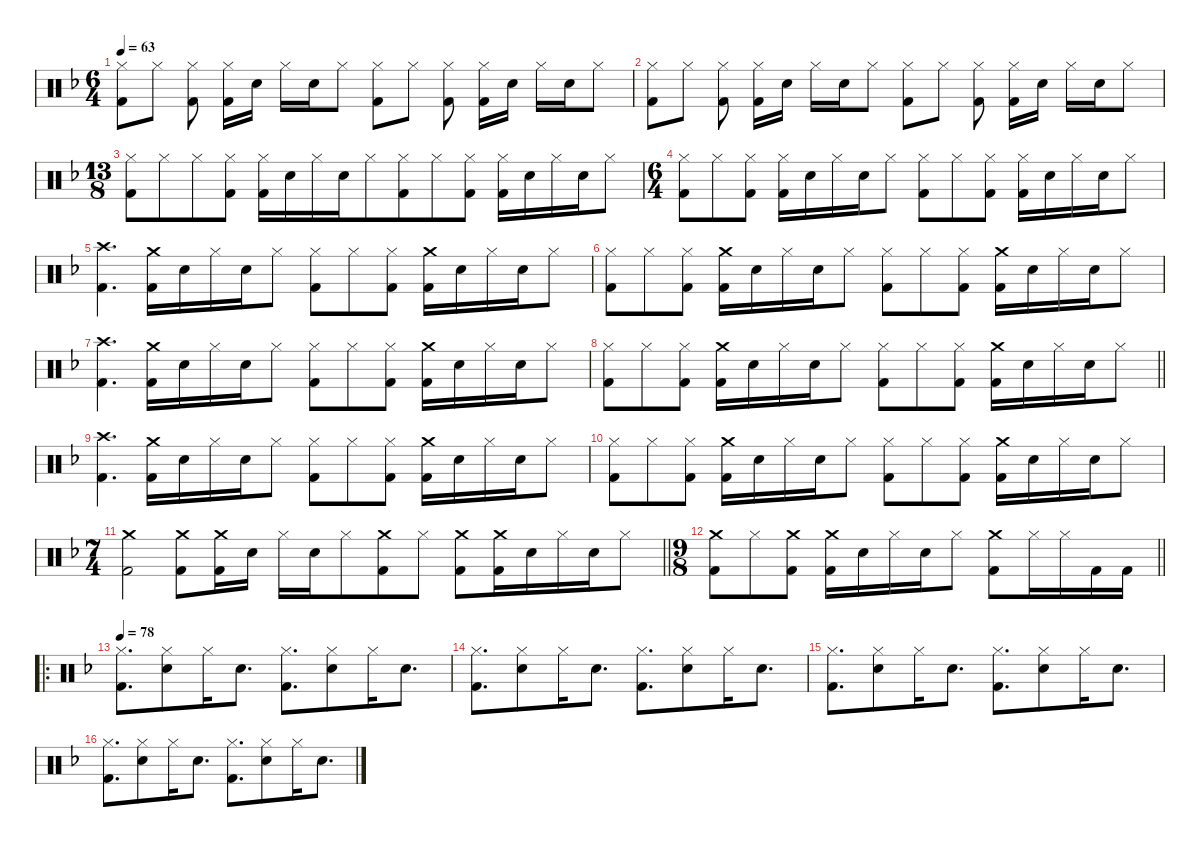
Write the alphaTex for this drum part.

\defaultSystemsLayout 4
\hideDynamics
\bracketExtendMode nobrackets
\singleTrackTrackNamePolicy hidden
\multiTrackTrackNamePolicy hidden
\firstSystemTrackNameMode fullname
\firstSystemTrackNameOrientation horizontal
\otherSystemsTrackNameOrientation horizontal
\track ("Percussion" "drm.") {instrument percussion}
\staff {score}
\articulation defaults
\ts (6 4)
\tempo 63
\clef neutral
\ks f
("Hi-Hat (closed)"{acc forcenatural} "Kick (hit) 2"{acc forcenatural}).8{dy f beam Down} "Hi-Hat (closed)"{acc forcenatural}.8{beam Down} ("Hi-Hat (closed)"{acc forcenatural} "Kick (hit) 2"{acc forcenatural}).8{beam Down beam split} ("Hi-Hat (closed)"{acc forcenatural} "Kick (hit) 2"{acc forcenatural}).16{beam Down} "Snare (hit) 2"{acc forcenatural}.16{beam Down} "Hi-Hat (closed)"{acc forcenatural}.16{beam Down} "Snare (hit) 2"{acc forcenatural}.16{dy mf beam Down} "Hi-Hat (closed)"{acc forcenatural}.8{beam Down} ("Hi-Hat (closed)"{acc forcenatural} "Kick (hit) 2"{acc forcenatural}).8{dy f beam Down} "Hi-Hat (closed)"{acc forcenatural}.8{beam Down} ("Hi-Hat (closed)"{acc forcenatural} "Kick (hit) 2"{acc forcenatural}).8{beam Down beam split} ("Hi-Hat (closed)"{acc forcenatural} "Kick (hit) 2"{acc forcenatural}).16{beam Down} "Snare (hit) 2"{acc forcenatural}.16{beam Down} "Hi-Hat (closed)"{acc forcenatural}.16{beam Down} "Snare (hit) 2"{acc forcenatural}.16{dy mf beam Down} "Hi-Hat (closed)"{acc forcenatural}.8{beam Down} |
("Hi-Hat (closed)"{acc forcenatural} "Kick (hit) 2"{acc forcenatural}).8{dy f beam Down} "Hi-Hat (closed)"{acc forcenatural}.8{beam Down} ("Hi-Hat (closed)"{acc forcenatural} "Kick (hit) 2"{acc forcenatural}).8{beam Down beam split} ("Hi-Hat (closed)"{acc forcenatural} "Kick (hit) 2"{acc forcenatural}).16{beam Down} "Snare (hit) 2"{acc forcenatural}.16{beam Down} "Hi-Hat (closed)"{acc forcenatural}.16{beam Down} "Snare (hit) 2"{acc forcenatural}.16{dy mf beam Down} "Hi-Hat (closed)"{acc forcenatural}.8{beam Down} ("Hi-Hat (closed)"{acc forcenatural} "Kick (hit) 2"{acc forcenatural}).8{dy f beam Down} "Hi-Hat (closed)"{acc forcenatural}.8{beam Down} ("Hi-Hat (closed)"{acc forcenatural} "Kick (hit) 2"{acc forcenatural}).8{beam Down beam split} ("Hi-Hat (closed)"{acc forcenatural} "Kick (hit) 2"{acc forcenatural}).16{beam Down} "Snare (hit) 2"{acc forcenatural}.16{beam Down} "Hi-Hat (closed)"{acc forcenatural}.16{beam Down} "Snare (hit) 2"{acc forcenatural}.16{dy mf beam Down} "Hi-Hat (closed)"{acc forcenatural}.8{beam Down} |
\ts (13 8)
\beaming (8 13)
("Hi-Hat (closed)"{acc forcenatural} "Kick (hit) 2"{acc forcenatural}).8{dy f beam Down beam merge} "Hi-Hat (closed)"{acc forcenatural}.8{beam Down beam merge} "Hi-Hat (closed)"{acc forcenatural}.8{beam Down beam merge} ("Hi-Hat (closed)"{acc forcenatural} "Kick (hit) 2"{acc forcenatural}).8{beam Down beam split} ("Hi-Hat (closed)"{acc forcenatural} "Kick (hit) 2"{acc forcenatural}).16{beam Down} "Snare (hit) 2"{acc forcenatural}.16{beam Down beam merge} "Hi-Hat (closed)"{acc forcenatural}.16{beam Down} "Snare (hit) 2"{acc forcenatural}.16{dy mf beam Down beam merge} "Hi-Hat (closed)"{acc forcenatural}.8{beam Down} ("Hi-Hat (closed)"{acc forcenatural} "Kick (hit) 2"{acc forcenatural}).8{dy f beam Down beam merge} "Hi-Hat (closed)"{acc forcenatural}.8{beam Down beam merge} ("Hi-Hat (closed)"{acc forcenatural} "Kick (hit) 2"{acc forcenatural}).8{beam Down beam split} ("Hi-Hat (closed)"{acc forcenatural} "Kick (hit) 2"{acc forcenatural}).16{beam Down} "Snare (hit) 2"{acc forcenatural}.16{beam Down beam merge} "Hi-Hat (closed)"{acc forcenatural}.16{beam Down} "Snare (hit) 2"{acc forcenatural}.16{dy mf beam Down beam merge} "Hi-Hat (closed)"{acc forcenatural}.8{beam Down} |
\ts (6 4)
\beaming (8 6 6)
("Hi-Hat (closed)"{acc forcenatural} "Kick (hit) 2"{acc forcenatural}).8{dy f beam Down} "Hi-Hat (closed)"{acc forcenatural}.8{beam Down} ("Hi-Hat (closed)"{acc forcenatural} "Kick (hit) 2"{acc forcenatural}).8{beam Down beam split} ("Hi-Hat (closed)"{acc forcenatural} "Kick (hit) 2"{acc forcenatural}).16{beam Down} "Snare (hit) 2"{acc forcenatural}.16{beam Down} "Hi-Hat (closed)"{acc forcenatural}.16{beam Down} "Snare (hit) 2"{acc forcenatural}.16{dy mf beam Down} "Hi-Hat (closed)"{acc forcenatural}.8{beam Down} ("Hi-Hat (closed)"{acc forcenatural} "Kick (hit) 2"{acc forcenatural}).8{dy f beam Down} "Hi-Hat (closed)"{acc forcenatural}.8{beam Down} ("Hi-Hat (closed)"{acc forcenatural} "Kick (hit) 2"{acc forcenatural}).8{beam Down beam split} ("Hi-Hat (closed)"{acc forcenatural} "Kick (hit) 2"{acc forcenatural}).16{beam Down} "Snare (hit) 2"{acc forcenatural}.16{beam Down} "Hi-Hat (closed)"{acc forcenatural}.16{beam Down} "Snare (hit) 2"{acc forcenatural}.16{dy mf beam Down} "Hi-Hat (closed)"{acc forcenatural}.8{beam Down} |
("Crash high (hit)"{acc forcenatural} "Kick (hit) 2"{acc forcenatural}).4{d dy f beam Down} ("Crash medium (hit)"{acc forcenatural} "Kick (hit) 2"{acc forcenatural}).16{beam Down} "Snare (hit) 2"{acc forcenatural}.16{beam Down} "Hi-Hat (closed)"{acc forcenatural}.16{beam Down} "Snare (hit) 2"{acc forcenatural}.16{dy mf beam Down} "Hi-Hat (closed)"{acc forcenatural}.8{beam Down} ("Hi-Hat (closed)"{acc forcenatural} "Kick (hit) 2"{acc forcenatural}).8{dy f beam Down} "Hi-Hat (closed)"{acc forcenatural}.8{beam Down} ("Hi-Hat (closed)"{acc forcenatural} "Kick (hit) 2"{acc forcenatural}).8{beam Down beam split} ("Crash medium (hit)"{acc forcenatural} "Kick (hit) 2"{acc forcenatural}).16{beam Down} "Snare (hit) 2"{acc forcenatural}.16{beam Down} "Hi-Hat (closed)"{acc forcenatural}.16{beam Down} "Snare (hit) 2"{acc forcenatural}.16{dy mf beam Down} "Hi-Hat (closed)"{acc forcenatural}.8{beam Down} |
("Hi-Hat (closed)"{acc forcenatural} "Kick (hit) 2"{acc forcenatural}).8{dy f beam Down} "Hi-Hat (closed)"{acc forcenatural}.8{beam Down} ("Hi-Hat (closed)"{acc forcenatural} "Kick (hit) 2"{acc forcenatural}).8{beam Down beam split} ("Crash medium (hit)"{acc forcenatural} "Kick (hit) 2"{acc forcenatural}).16{beam Down} "Snare (hit) 2"{acc forcenatural}.16{beam Down} "Hi-Hat (closed)"{acc forcenatural}.16{beam Down} "Snare (hit) 2"{acc forcenatural}.16{dy mf beam Down} "Hi-Hat (closed)"{acc forcenatural}.8{beam Down} ("Hi-Hat (closed)"{acc forcenatural} "Kick (hit) 2"{acc forcenatural}).8{dy f beam Down} "Hi-Hat (closed)"{acc forcenatural}.8{beam Down} ("Hi-Hat (closed)"{acc forcenatural} "Kick (hit) 2"{acc forcenatural}).8{beam Down beam split} ("Crash medium (hit)"{acc forcenatural} "Kick (hit) 2"{acc forcenatural}).16{beam Down} "Snare (hit) 2"{acc forcenatural}.16{beam Down} "Hi-Hat (closed)"{acc forcenatural}.16{beam Down} "Snare (hit) 2"{acc forcenatural}.16{dy mf beam Down} "Hi-Hat (closed)"{acc forcenatural}.8{beam Down} |
("Crash high (hit)"{acc forcenatural} "Kick (hit) 2"{acc forcenatural}).4{d dy f beam Down} ("Crash medium (hit)"{acc forcenatural} "Kick (hit) 2"{acc forcenatural}).16{beam Down} "Snare (hit) 2"{acc forcenatural}.16{beam Down} "Hi-Hat (closed)"{acc forcenatural}.16{beam Down} "Snare (hit) 2"{acc forcenatural}.16{dy mf beam Down} "Hi-Hat (closed)"{acc forcenatural}.8{beam Down} ("Hi-Hat (closed)"{acc forcenatural} "Kick (hit) 2"{acc forcenatural}).8{dy f beam Down} "Hi-Hat (closed)"{acc forcenatural}.8{beam Down} ("Hi-Hat (closed)"{acc forcenatural} "Kick (hit) 2"{acc forcenatural}).8{beam Down beam split} ("Crash medium (hit)"{acc forcenatural} "Kick (hit) 2"{acc forcenatural}).16{beam Down} "Snare (hit) 2"{acc forcenatural}.16{beam Down} "Hi-Hat (closed)"{acc forcenatural}.16{beam Down} "Snare (hit) 2"{acc forcenatural}.16{dy mf beam Down} "Hi-Hat (closed)"{acc forcenatural}.8{beam Down} |
\barLineRight lightlight
("Hi-Hat (closed)"{acc forcenatural} "Kick (hit) 2"{acc forcenatural}).8{dy f beam Down} "Hi-Hat (closed)"{acc forcenatural}.8{beam Down} ("Hi-Hat (closed)"{acc forcenatural} "Kick (hit) 2"{acc forcenatural}).8{beam Down beam split} ("Crash medium (hit)"{acc forcenatural} "Kick (hit) 2"{acc forcenatural}).16{beam Down} "Snare (hit) 2"{acc forcenatural}.16{beam Down} "Hi-Hat (closed)"{acc forcenatural}.16{beam Down} "Snare (hit) 2"{acc forcenatural}.16{dy mf beam Down} "Hi-Hat (closed)"{acc forcenatural}.8{beam Down} ("Hi-Hat (closed)"{acc forcenatural} "Kick (hit) 2"{acc forcenatural}).8{dy f beam Down} "Hi-Hat (closed)"{acc forcenatural}.8{beam Down} ("Hi-Hat (closed)"{acc forcenatural} "Kick (hit) 2"{acc forcenatural}).8{beam Down beam split} ("Crash medium (hit)"{acc forcenatural} "Kick (hit) 2"{acc forcenatural}).16{beam Down} "Snare (hit) 2"{acc forcenatural}.16{beam Down} "Hi-Hat (closed)"{acc forcenatural}.16{beam Down} "Snare (hit) 2"{acc forcenatural}.16{dy mf beam Down} "Hi-Hat (closed)"{acc forcenatural}.8{beam Down} |
("Crash high (hit)"{acc forcenatural} "Kick (hit) 2"{acc forcenatural}).4{d dy f beam Down} ("Crash medium (hit)"{acc forcenatural} "Kick (hit) 2"{acc forcenatural}).16{beam Down} "Snare (hit) 2"{acc forcenatural}.16{beam Down} "Hi-Hat (closed)"{acc forcenatural}.16{beam Down} "Snare (hit) 2"{acc forcenatural}.16{dy mf beam Down} "Hi-Hat (closed)"{acc forcenatural}.8{beam Down} ("Hi-Hat (closed)"{acc forcenatural} "Kick (hit) 2"{acc forcenatural}).8{dy f beam Down} "Hi-Hat (closed)"{acc forcenatural}.8{beam Down} ("Hi-Hat (closed)"{acc forcenatural} "Kick (hit) 2"{acc forcenatural}).8{beam Down beam split} ("Crash medium (hit)"{acc forcenatural} "Kick (hit) 2"{acc forcenatural}).16{beam Down} "Snare (hit) 2"{acc forcenatural}.16{beam Down} "Hi-Hat (closed)"{acc forcenatural}.16{beam Down} "Snare (hit) 2"{acc forcenatural}.16{dy mf beam Down} "Hi-Hat (closed)"{acc forcenatural}.8{beam Down} |
("Hi-Hat (closed)"{acc forcenatural} "Kick (hit) 2"{acc forcenatural}).8{dy f beam Down} "Hi-Hat (closed)"{acc forcenatural}.8{beam Down} ("Hi-Hat (closed)"{acc forcenatural} "Kick (hit) 2"{acc forcenatural}).8{beam Down beam split} ("Crash medium (hit)"{acc forcenatural} "Kick (hit) 2"{acc forcenatural}).16{beam Down} "Snare (hit) 2"{acc forcenatural}.16{beam Down} "Hi-Hat (closed)"{acc forcenatural}.16{beam Down} "Snare (hit) 2"{acc forcenatural}.16{dy mf beam Down} "Hi-Hat (closed)"{acc forcenatural}.8{beam Down} ("Hi-Hat (closed)"{acc forcenatural} "Kick (hit) 2"{acc forcenatural}).8{dy f beam Down} "Hi-Hat (closed)"{acc forcenatural}.8{beam Down} ("Hi-Hat (closed)"{acc forcenatural} "Kick (hit) 2"{acc forcenatural}).8{beam Down beam split} ("Crash medium (hit)"{acc forcenatural} "Kick (hit) 2"{acc forcenatural}).16{beam Down} "Snare (hit) 2"{acc forcenatural}.16{beam Down} "Hi-Hat (closed)"{acc forcenatural}.16{beam Down} "Snare (hit) 2"{acc forcenatural}.16{dy mf beam Down} "Hi-Hat (closed)"{acc forcenatural}.8{beam Down} |
\ts (7 4)
\beaming (8 6 4 4)
\barLineRight lightlight
("Crash medium (hit)"{acc forcenatural} "Kick (hit) 2"{acc forcenatural}).2{dy f beam Down} ("Crash medium (hit)"{acc forcenatural} "Kick (hit) 2"{acc forcenatural}).8{beam Down} ("Crash medium (hit)"{acc forcenatural} "Kick (hit) 2"{acc forcenatural}).16{beam Down} "Snare (hit) 2"{acc forcenatural}.16{beam Down} "Hi-Hat (closed)"{acc forcenatural}.16{beam Down} "Snare (hit) 2"{acc forcenatural}.16{dy mf beam Down} "Hi-Hat (closed)"{acc forcenatural}.8{beam Down} ("Crash medium (hit)"{acc forcenatural} "Kick (hit) 2"{acc forcenatural}).8{dy f beam Down} "Hi-Hat (closed)"{acc forcenatural}.8{beam Down} ("Crash medium (hit)"{acc forcenatural} "Kick (hit) 2"{acc forcenatural}).8{beam Down} ("Crash medium (hit)"{acc forcenatural} "Kick (hit) 2"{acc forcenatural}).16{beam Down} "Snare (hit) 2"{acc forcenatural}.16{beam Down} "Hi-Hat (closed)"{acc forcenatural}.16{beam Down} "Snare (hit) 2"{acc forcenatural}.16{dy mf beam Down} "Hi-Hat (closed)"{acc forcenatural}.8{beam Down} |
\ts (9 8)
\beaming (8 3 3 3)
\barLineRight lightlight
("Crash medium (hit)"{acc forcenatural} "Kick (hit) 2"{acc forcenatural}).8{dy f beam Down} "Hi-Hat (closed)"{acc forcenatural}.8{beam Down} ("Crash medium (hit)"{acc forcenatural} "Kick (hit) 2"{acc forcenatural}).8{beam Down} ("Crash medium (hit)"{acc forcenatural} "Kick (hit) 2"{acc forcenatural}).16{beam Down} "Snare (hit) 2"{acc forcenatural}.16{beam Down} "Hi-Hat (closed)"{acc forcenatural}.16{beam Down} "Snare (hit) 2"{acc forcenatural}.16{dy mf beam Down} "Hi-Hat (closed)"{acc forcenatural}.8{beam Down} ("Crash medium (hit)"{acc forcenatural} "Kick (hit) 2"{acc forcenatural}).8{dy f beam Down} "Hi-Hat (closed)"{acc forcenatural}.16{beam Down} "Hi-Hat (closed)"{acc forcenatural}.16{dy ff beam Down} "Kick (hit) 2"{acc forcenatural}.16{beam Down} "Kick (hit) 2"{acc forcenatural}.16{beam Down} |
\ro
\tempo 78
("Hi-Hat (closed)"{acc forcenatural} "Kick (hit) 2"{acc forcenatural}).8{d beam Down} ("Hi-Hat (closed)"{acc forcenatural} "Snare (hit) 2"{acc forcenatural}).8{dy mf beam Down} "Hi-Hat (closed)"{acc forcenatural}.16{dy f beam Down beam merge} "Snare (hit) 2"{acc forcenatural}.8{d dy mf beam Down beam split} ("Hi-Hat (closed)"{acc forcenatural} "Kick (hit) 2"{acc forcenatural}).8{d dy ff beam Down beam merge} ("Hi-Hat (closed)"{acc forcenatural} "Snare (hit) 2"{acc forcenatural}).8{dy mf beam Down} "Hi-Hat (closed)"{acc forcenatural}.16{dy f beam Down} "Snare (hit) 2"{acc forcenatural}.8{d dy mf beam Down} |
("Hi-Hat (closed)"{acc forcenatural} "Kick (hit) 2"{acc forcenatural}).8{d dy ff beam Down} ("Hi-Hat (closed)"{acc forcenatural} "Snare (hit) 2"{acc forcenatural}).8{dy mf beam Down} "Hi-Hat (closed)"{acc forcenatural}.16{dy f beam Down beam merge} "Snare (hit) 2"{acc forcenatural}.8{d dy mf beam Down beam split} ("Hi-Hat (closed)"{acc forcenatural} "Kick (hit) 2"{acc forcenatural}).8{d dy ff beam Down beam merge} ("Hi-Hat (closed)"{acc forcenatural} "Snare (hit) 2"{acc forcenatural}).8{dy mf beam Down} "Hi-Hat (closed)"{acc forcenatural}.16{dy f beam Down} "Snare (hit) 2"{acc forcenatural}.8{d dy mf beam Down} |
("Hi-Hat (closed)"{acc forcenatural} "Kick (hit) 2"{acc forcenatural}).8{d dy ff beam Down} ("Hi-Hat (closed)"{acc forcenatural} "Snare (hit) 2"{acc forcenatural}).8{dy mf beam Down} "Hi-Hat (closed)"{acc forcenatural}.16{dy f beam Down beam merge} "Snare (hit) 2"{acc forcenatural}.8{d dy mf beam Down beam split} ("Hi-Hat (closed)"{acc forcenatural} "Kick (hit) 2"{acc forcenatural}).8{d dy ff beam Down beam merge} ("Hi-Hat (closed)"{acc forcenatural} "Snare (hit) 2"{acc forcenatural}).8{dy mf beam Down} "Hi-Hat (closed)"{acc forcenatural}.16{dy f beam Down} "Snare (hit) 2"{acc forcenatural}.8{d dy mf beam Down} |
("Hi-Hat (closed)"{acc forcenatural} "Kick (hit) 2"{acc forcenatural}).8{d dy ff beam Down} ("Hi-Hat (closed)"{acc forcenatural} "Snare (hit) 2"{acc forcenatural}).8{dy mf beam Down} "Hi-Hat (closed)"{acc forcenatural}.16{dy f beam Down beam merge} "Snare (hit) 2"{acc forcenatural}.8{d dy mf beam Down beam split} ("Hi-Hat (closed)"{acc forcenatural} "Kick (hit) 2"{acc forcenatural}).8{d dy ff beam Down beam merge} ("Hi-Hat (closed)"{acc forcenatural} "Snare (hit) 2"{acc forcenatural}).8{dy mf beam Down} "Hi-Hat (closed)"{acc forcenatural}.16{dy f beam Down} "Snare (hit) 2"{acc forcenatural}.8{d dy mf beam Down}
